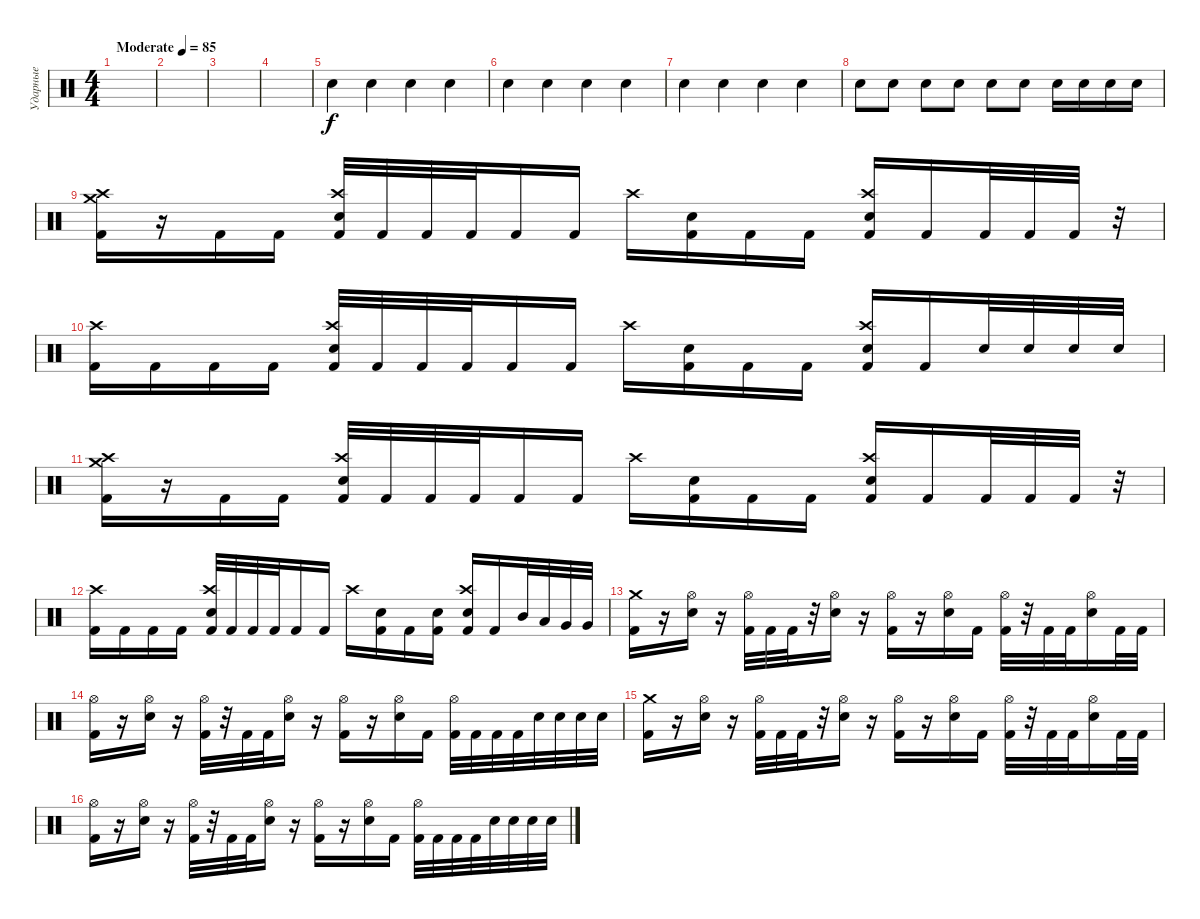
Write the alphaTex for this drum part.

\track ("Ударные" "Ударные") {instrument percussion}
\staff {score}
\articulation defaults
\ts (4 4)
\tempo (85 "Moderate")
\clef neutral
\ks c
|
|
|
|
"Electric Snare (hit)".4 "Electric Snare (hit)".4 "Electric Snare (hit)".4 "Electric Snare (hit)".4 |
"Electric Snare (hit)".4 "Electric Snare (hit)".4 "Electric Snare (hit)".4 "Electric Snare (hit)".4 |
"Electric Snare (hit)".4 "Electric Snare (hit)".4 "Electric Snare (hit)".4 "Electric Snare (hit)".4 |
"Electric Snare (hit)".8 "Electric Snare (hit)".8 "Electric Snare (hit)".8 "Electric Snare (hit)".8 "Electric Snare (hit)".8 "Electric Snare (hit)".8 "Electric Snare (hit)".16 "Electric Snare (hit)".16 "Electric Snare (hit)".16 "Electric Snare (hit)".16 |
("Crash high (hit)" "Crash medium (hit)" "Kick (hit) 2").16 r.16 "Kick (hit) 2".16 "Kick (hit) 2".16 ("Crash high (hit)" "Electric Snare (hit)" "Kick (hit) 2").32 "Kick (hit) 2".32 "Kick (hit) 2".32 "Kick (hit) 2".32 "Kick (hit) 2".16 "Kick (hit) 2".16 "Crash high (hit)".16 ("Electric Snare (hit)" "Kick (hit) 2").16 "Kick (hit) 2".16 "Kick (hit) 2".16 ("Crash high (hit)" "Electric Snare (hit)" "Kick (hit) 2").16 "Kick (hit) 2".16 "Kick (hit) 2".32 "Kick (hit) 2".32 "Kick (hit) 2".32 r.32 |
("Crash high (hit)" "Kick (hit) 2").16 "Kick (hit) 2".16 "Kick (hit) 2".16 "Kick (hit) 2".16 ("Crash high (hit)" "Electric Snare (hit)" "Kick (hit) 2").32 "Kick (hit) 2".32 "Kick (hit) 2".32 "Kick (hit) 2".32 "Kick (hit) 2".16 "Kick (hit) 2".16 "Crash high (hit)".16 ("Electric Snare (hit)" "Kick (hit) 2").16 "Kick (hit) 2".16 "Kick (hit) 2".16 ("Crash high (hit)" "Electric Snare (hit)" "Kick (hit) 2").16 "Kick (hit) 2".16 "Electric Snare (hit)".32 "Electric Snare (hit)".32 "Electric Snare (hit)".32 "Electric Snare (hit)".32 |
("Crash high (hit)" "Crash medium (hit)" "Kick (hit) 2").16 r.16 "Kick (hit) 2".16 "Kick (hit) 2".16 ("Crash high (hit)" "Electric Snare (hit)" "Kick (hit) 2").32 "Kick (hit) 2".32 "Kick (hit) 2".32 "Kick (hit) 2".32 "Kick (hit) 2".16 "Kick (hit) 2".16 "Crash high (hit)".16 ("Electric Snare (hit)" "Kick (hit) 2").16 "Kick (hit) 2".16 "Kick (hit) 2".16 ("Crash high (hit)" "Electric Snare (hit)" "Kick (hit) 2").16 "Kick (hit) 2".16 "Kick (hit) 2".32 "Kick (hit) 2".32 "Kick (hit) 2".32 r.32 |
("Crash high (hit)" "Kick (hit) 2").16 "Kick (hit) 2".16 "Kick (hit) 2".16 "Kick (hit) 2".16 ("Crash high (hit)" "Electric Snare (hit)" "Kick (hit) 2").32 "Kick (hit) 2".32 "Kick (hit) 2".32 "Kick (hit) 2".32 "Kick (hit) 2".16 "Kick (hit) 2".16 "Crash high (hit)".16 ("Electric Snare (hit)" "Kick (hit) 2").16 "Kick (hit) 2".16 ("Electric Snare (hit)" "Kick (hit) 2").16 ("Crash high (hit)" "Electric Snare (hit)" "Kick (hit) 2").16 "Kick (hit) 2".16 "Mid Tom (hit)".32 "Low Tom (hit)".32 "Very Low Tom (hit)".32 "Very Low Tom (hit)".32 |
("Crash medium (hit)" "Kick (hit) 2").16 r.16 ("Hi-Hat (open)" "Electric Snare (hit)").16 r.16 ("Hi-Hat (open)" "Kick (hit) 2").32 "Kick (hit) 2".32 "Kick (hit) 2".32 r.32 ("Hi-Hat (open)" "Electric Snare (hit)").16 r.16 ("Hi-Hat (open)" "Kick (hit) 2").16 r.16 ("Hi-Hat (open)" "Electric Snare (hit)").16 "Kick (hit) 2".16 ("Hi-Hat (open)" "Kick (hit) 2").32 r.32 "Kick (hit) 2".32 "Kick (hit) 2".32 ("Hi-Hat (open)" "Electric Snare (hit)").16 "Kick (hit) 2".32 "Kick (hit) 2".32 |
("Hi-Hat (open)" "Kick (hit) 2").16 r.16 ("Hi-Hat (open)" "Electric Snare (hit)").16 r.16 ("Hi-Hat (open)" "Kick (hit) 2").32 r.32 "Kick (hit) 2".32 "Kick (hit) 2".32 ("Hi-Hat (open)" "Electric Snare (hit)").16 r.16 ("Hi-Hat (open)" "Kick (hit) 2").16 r.16 ("Hi-Hat (open)" "Electric Snare (hit)").16 "Kick (hit) 2".16 ("Hi-Hat (open)" "Kick (hit) 2").32 "Kick (hit) 2".32 "Kick (hit) 2".32 "Kick (hit) 2".32 "Electric Snare (hit)".32 "Electric Snare (hit)".32 "Electric Snare (hit)".32 "Electric Snare (hit)".32 |
("Crash medium (hit)" "Kick (hit) 2").16 r.16 ("Hi-Hat (open)" "Electric Snare (hit)").16 r.16 ("Hi-Hat (open)" "Kick (hit) 2").32 "Kick (hit) 2".32 "Kick (hit) 2".32 r.32 ("Hi-Hat (open)" "Electric Snare (hit)").16 r.16 ("Hi-Hat (open)" "Kick (hit) 2").16 r.16 ("Hi-Hat (open)" "Electric Snare (hit)").16 "Kick (hit) 2".16 ("Hi-Hat (open)" "Kick (hit) 2").32 r.32 "Kick (hit) 2".32 "Kick (hit) 2".32 ("Hi-Hat (open)" "Electric Snare (hit)").16 "Kick (hit) 2".32 "Kick (hit) 2".32 |
("Hi-Hat (open)" "Kick (hit) 2").16 r.16 ("Hi-Hat (open)" "Electric Snare (hit)").16 r.16 ("Hi-Hat (open)" "Kick (hit) 2").32 r.32 "Kick (hit) 2".32 "Kick (hit) 2".32 ("Hi-Hat (open)" "Electric Snare (hit)").16 r.16 ("Hi-Hat (open)" "Kick (hit) 2").16 r.16 ("Hi-Hat (open)" "Electric Snare (hit)").16 "Kick (hit) 2".16 ("Hi-Hat (open)" "Kick (hit) 2").32 "Kick (hit) 2".32 "Kick (hit) 2".32 "Kick (hit) 2".32 "Electric Snare (hit)".32 "Electric Snare (hit)".32 "Electric Snare (hit)".32 "Electric Snare (hit)".32
